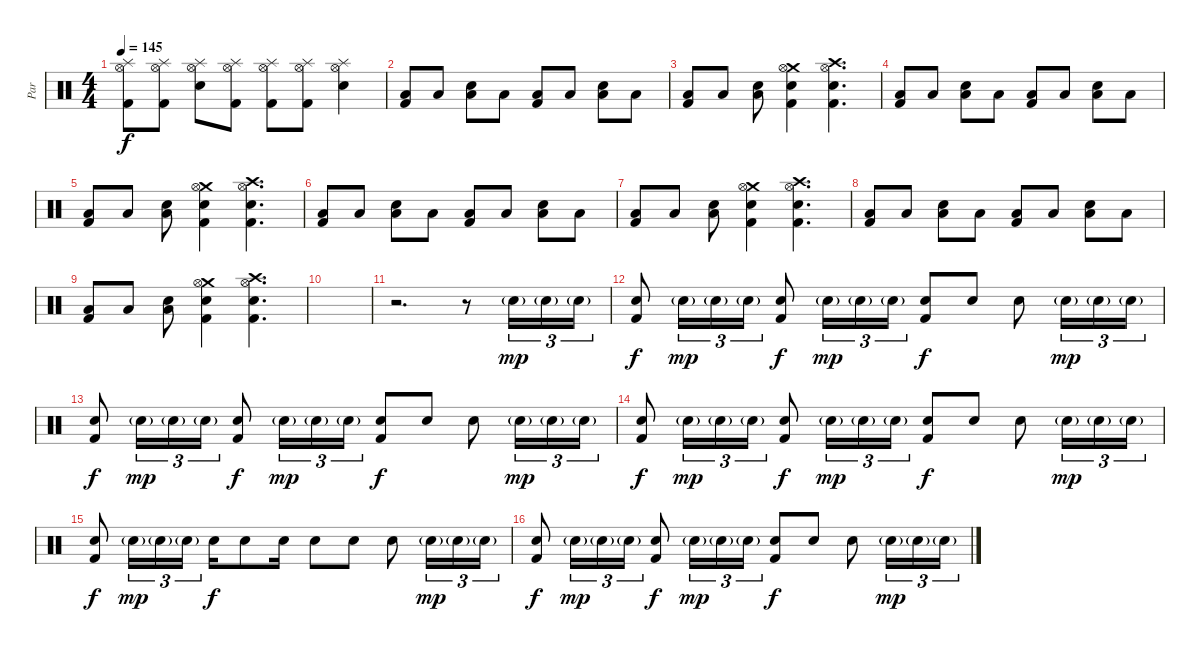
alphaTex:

\track ("Par" "Par") {instrument percussion}
\staff {score}
\articulation defaults
\ts (4 4)
\tempo 145
\clef neutral
\ks c
("Splash (hit)" "Hi-Hat (open)" "Kick (hit) 2").8{dy f} ("Splash (hit)" "Hi-Hat (open)" "Kick (hit) 2").8 ("Splash (hit)" "Hi-Hat (open)" "Snare (hit) 2").8 ("Splash (hit)" "Hi-Hat (open)" "Kick (hit) 2").8 ("Splash (hit)" "Hi-Hat (open)" "Kick (hit) 2").8 ("Splash (hit)" "Hi-Hat (open)" "Kick (hit) 2").8 ("Splash (hit)" "Hi-Hat (open)" "Snare (hit) 2").4 |
("Low Floor Tom (hit)" "Kick (hit) 2").8 "Low Floor Tom (hit)".8 ("Snare (hit) 2" "Low Floor Tom (hit)").8 "Low Floor Tom (hit)".8 ("Low Floor Tom (hit)" "Kick (hit) 2").8 "Low Floor Tom (hit)".8 ("Snare (hit) 2" "Low Floor Tom (hit)").8 "Low Floor Tom (hit)".8 |
("Low Floor Tom (hit)" "Kick (hit) 2").8 "Low Floor Tom (hit)".8 ("Snare (hit) 2" "Low Floor Tom (hit)").8 ("Crash medium (hit)" "Hi-Hat (open)" "Snare (hit) 2" "Kick (hit) 2").4 ("Crash high (hit)" "Hi-Hat (open)" "Snare (hit) 2" "Kick (hit) 2").4{d} |
("Low Floor Tom (hit)" "Kick (hit) 2").8 "Low Floor Tom (hit)".8 ("Snare (hit) 2" "Low Floor Tom (hit)").8 "Low Floor Tom (hit)".8 ("Low Floor Tom (hit)" "Kick (hit) 2").8 "Low Floor Tom (hit)".8 ("Snare (hit) 2" "Low Floor Tom (hit)").8 "Low Floor Tom (hit)".8 |
("Low Floor Tom (hit)" "Kick (hit) 2").8 "Low Floor Tom (hit)".8 ("Snare (hit) 2" "Low Floor Tom (hit)").8 ("Crash medium (hit)" "Hi-Hat (open)" "Snare (hit) 2" "Kick (hit) 2").4 ("Crash high (hit)" "Hi-Hat (open)" "Snare (hit) 2" "Kick (hit) 2").4{d} |
("Low Floor Tom (hit)" "Kick (hit) 2").8 "Low Floor Tom (hit)".8 ("Snare (hit) 2" "Low Floor Tom (hit)").8 "Low Floor Tom (hit)".8 ("Low Floor Tom (hit)" "Kick (hit) 2").8 "Low Floor Tom (hit)".8 ("Snare (hit) 2" "Low Floor Tom (hit)").8 "Low Floor Tom (hit)".8 |
("Low Floor Tom (hit)" "Kick (hit) 2").8 "Low Floor Tom (hit)".8 ("Snare (hit) 2" "Low Floor Tom (hit)").8 ("Crash medium (hit)" "Hi-Hat (open)" "Snare (hit) 2" "Kick (hit) 2").4 ("Crash high (hit)" "Hi-Hat (open)" "Snare (hit) 2" "Kick (hit) 2").4{d} |
("Low Floor Tom (hit)" "Kick (hit) 2").8 "Low Floor Tom (hit)".8 ("Snare (hit) 2" "Low Floor Tom (hit)").8 "Low Floor Tom (hit)".8 ("Low Floor Tom (hit)" "Kick (hit) 2").8 "Low Floor Tom (hit)".8 ("Snare (hit) 2" "Low Floor Tom (hit)").8 "Low Floor Tom (hit)".8 |
("Low Floor Tom (hit)" "Kick (hit) 2").8 "Low Floor Tom (hit)".8 ("Snare (hit) 2" "Low Floor Tom (hit)").8 ("Crash medium (hit)" "Hi-Hat (open)" "Snare (hit) 2" "Kick (hit) 2").4 ("Crash high (hit)" "Hi-Hat (open)" "Snare (hit) 2" "Kick (hit) 2").4{d} |
|
r.2{d} r.8 "Snare (hit) 2"{g}.16{tu (3 2) dy mp} "Snare (hit) 2"{g}.16{tu (3 2)} "Snare (hit) 2"{g}.16{tu (3 2)} |
("Snare (hit) 2" "Kick (hit) 2").8{dy f} "Snare (hit) 2"{g}.16{tu (3 2) dy mp} "Snare (hit) 2"{g}.16{tu (3 2)} "Snare (hit) 2"{g}.16{tu (3 2)} ("Snare (hit) 2" "Kick (hit) 2").8{dy f} "Snare (hit) 2"{g}.16{tu (3 2) dy mp} "Snare (hit) 2"{g}.16{tu (3 2)} "Snare (hit) 2"{g}.16{tu (3 2)} ("Snare (hit) 2" "Kick (hit) 2").8{dy f} "Snare (hit) 2".8 "Snare (hit) 2".8 "Snare (hit) 2"{g}.16{tu (3 2) dy mp} "Snare (hit) 2"{g}.16{tu (3 2)} "Snare (hit) 2"{g}.16{tu (3 2)} |
("Snare (hit) 2" "Kick (hit) 2").8{dy f} "Snare (hit) 2"{g}.16{tu (3 2) dy mp} "Snare (hit) 2"{g}.16{tu (3 2)} "Snare (hit) 2"{g}.16{tu (3 2)} ("Snare (hit) 2" "Kick (hit) 2").8{dy f} "Snare (hit) 2"{g}.16{tu (3 2) dy mp} "Snare (hit) 2"{g}.16{tu (3 2)} "Snare (hit) 2"{g}.16{tu (3 2)} ("Snare (hit) 2" "Kick (hit) 2").8{dy f} "Snare (hit) 2".8 "Snare (hit) 2".8 "Snare (hit) 2"{g}.16{tu (3 2) dy mp} "Snare (hit) 2"{g}.16{tu (3 2)} "Snare (hit) 2"{g}.16{tu (3 2)} |
("Snare (hit) 2" "Kick (hit) 2").8{dy f} "Snare (hit) 2"{g}.16{tu (3 2) dy mp} "Snare (hit) 2"{g}.16{tu (3 2)} "Snare (hit) 2"{g}.16{tu (3 2)} ("Snare (hit) 2" "Kick (hit) 2").8{dy f} "Snare (hit) 2"{g}.16{tu (3 2) dy mp} "Snare (hit) 2"{g}.16{tu (3 2)} "Snare (hit) 2"{g}.16{tu (3 2)} ("Snare (hit) 2" "Kick (hit) 2").8{dy f} "Snare (hit) 2".8 "Snare (hit) 2".8 "Snare (hit) 2"{g}.16{tu (3 2) dy mp} "Snare (hit) 2"{g}.16{tu (3 2)} "Snare (hit) 2"{g}.16{tu (3 2)} |
("Snare (hit) 2" "Kick (hit) 2").8{dy f} "Snare (hit) 2"{g}.16{tu (3 2) dy mp} "Snare (hit) 2"{g}.16{tu (3 2)} "Snare (hit) 2"{g}.16{tu (3 2)} "Snare (hit) 2".16{dy f} "Snare (hit) 2".8 "Snare (hit) 2".16 "Snare (hit) 2".8 "Snare (hit) 2".8 "Snare (hit) 2".8 "Snare (hit) 2"{g}.16{tu (3 2) dy mp} "Snare (hit) 2"{g}.16{tu (3 2)} "Snare (hit) 2"{g}.16{tu (3 2)} |
("Snare (hit) 2" "Kick (hit) 2").8{dy f} "Snare (hit) 2"{g}.16{tu (3 2) dy mp} "Snare (hit) 2"{g}.16{tu (3 2)} "Snare (hit) 2"{g}.16{tu (3 2)} ("Snare (hit) 2" "Kick (hit) 2").8{dy f} "Snare (hit) 2"{g}.16{tu (3 2) dy mp} "Snare (hit) 2"{g}.16{tu (3 2)} "Snare (hit) 2"{g}.16{tu (3 2)} ("Snare (hit) 2" "Kick (hit) 2").8{dy f} "Snare (hit) 2".8 "Snare (hit) 2".8 "Snare (hit) 2"{g}.16{tu (3 2) dy mp} "Snare (hit) 2"{g}.16{tu (3 2)} "Snare (hit) 2"{g}.16{tu (3 2)}
